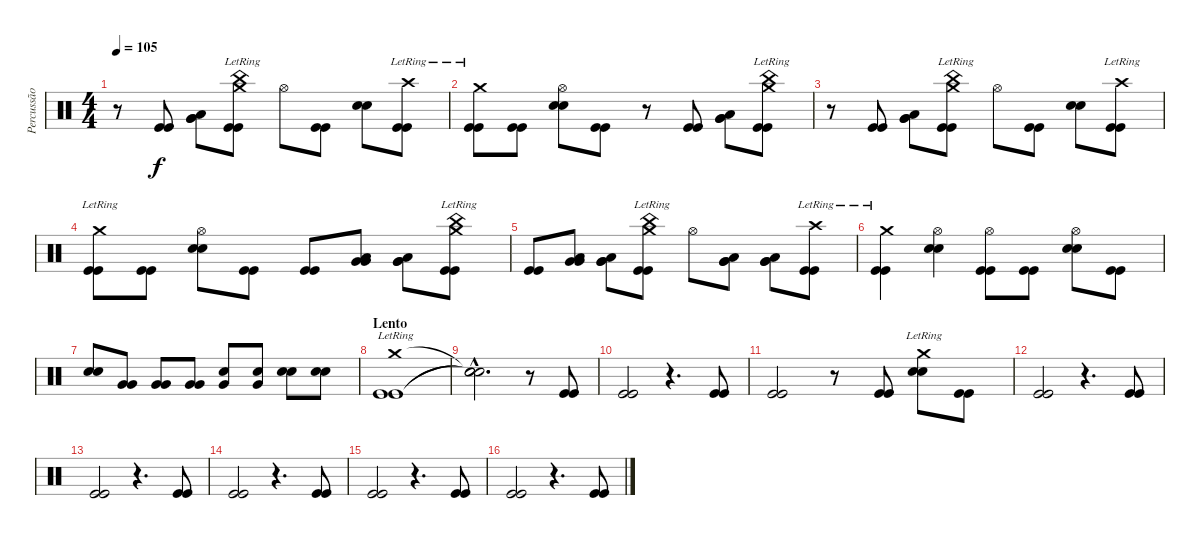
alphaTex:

\track ("Percussão" "Percussão") {instrument percussion}
\staff {score}
\articulation defaults
\ts (4 4)
\tempo 105
\clef neutral
\ks c
r.8{dy f} ("Kick (hit)" "Kick (hit)").8 ("Low Tom (hit)" "Very Low Tom (hit)" "Very Low Tom (hit)").8 ("Crash medium (hit)"{lr} "China (hit)"{lr} "Kick (hit)" "Kick (hit)").8 "Hi-Hat (open)".8 ("Kick (hit)" "Kick (hit)").8 ("Electric Snare (hit)" "Electric Snare (hit)").8 ("Crash high (hit)"{lr} "Kick (hit)" "Kick (hit)").8 |
("Crash medium (hit)"{lr} "Kick (hit)" "Kick (hit)").8 ("Kick (hit)" "Kick (hit)").8 ("Hi-Hat (open)" "Electric Snare (hit)" "Electric Snare (hit)").8 ("Kick (hit)" "Kick (hit)").8 r.8 ("Kick (hit)" "Kick (hit)").8 ("Low Tom (hit)" "Very Low Tom (hit)" "Very Low Tom (hit)").8 ("Crash medium (hit)"{lr} "China (hit)"{lr} "Kick (hit)" "Kick (hit)").8 |
r.8 ("Kick (hit)" "Kick (hit)").8 ("Low Tom (hit)" "Very Low Tom (hit)" "Very Low Tom (hit)").8 ("Crash medium (hit)"{lr} "China (hit)"{lr} "Kick (hit)" "Kick (hit)").8 "Hi-Hat (open)".8 ("Kick (hit)" "Kick (hit)").8 ("Electric Snare (hit)" "Electric Snare (hit)").8 ("Crash high (hit)"{lr} "Kick (hit)" "Kick (hit)").8 |
("Crash medium (hit)"{lr} "Kick (hit)" "Kick (hit)").8 ("Kick (hit)" "Kick (hit)").8 ("Hi-Hat (open)" "Electric Snare (hit)" "Electric Snare (hit)").8 ("Kick (hit)" "Kick (hit)").8 ("Kick (hit)" "Kick (hit)").8 ("Low Tom (hit)" "Very Low Tom (hit)" "Very Low Tom (hit)").8 ("Low Tom (hit)" "Very Low Tom (hit)" "Very Low Tom (hit)").8 ("Crash medium (hit)"{lr} "China (hit)"{lr} "Kick (hit)" "Kick (hit)").8 |
("Kick (hit)" "Kick (hit)").8 ("Low Tom (hit)" "Very Low Tom (hit)" "Very Low Tom (hit)").8 ("Low Tom (hit)" "Very Low Tom (hit)" "Very Low Tom (hit)").8 ("Crash medium (hit)"{lr} "China (hit)"{lr} "Kick (hit)" "Kick (hit)").8 "Hi-Hat (open)".8 ("Low Tom (hit)" "Very Low Tom (hit)" "Very Low Tom (hit)").8 ("Low Tom (hit)" "Very Low Tom (hit)" "Very Low Tom (hit)").8 ("Crash high (hit)"{lr} "Kick (hit)" "Kick (hit)").8 |
("Crash medium (hit)"{lr} "Kick (hit)" "Kick (hit)").4 ("Hi-Hat (open)" "Electric Snare (hit)" "Electric Snare (hit)").4 ("Hi-Hat (open)" "Kick (hit)" "Kick (hit)").8 ("Kick (hit)" "Kick (hit)").8 ("Hi-Hat (open)" "Electric Snare (hit)" "Electric Snare (hit)").8 ("Kick (hit)" "Kick (hit)").8 |
("Electric Snare (hit)" "Electric Snare (hit)").8 ("Very Low Tom (hit)" "Very Low Tom (hit)").8 ("Very Low Tom (hit)" "Very Low Tom (hit)").8 ("Very Low Tom (hit)" "Very Low Tom (hit)").8 ("Very Low Tom (hit)" "Electric Snare (hit)").8 ("Very Low Tom (hit)" "Electric Snare (hit)").8 ("Electric Snare (hit)" "Electric Snare (hit)").8 ("Electric Snare (hit)" "Electric Snare (hit)").8 |
\section ("" "Lento")
("Crash medium (hit)"{lr} "Kick (hit)" "Kick (hit)").1 |
("Snare (hit)"{hac t} "Snare (hit)"{hac t} "Snare (hit)"{hac t}).2{d} r.8 ("Kick (hit)" "Kick (hit)").8 |
("Kick (hit)" "Kick (hit)").2 r.4{d} ("Kick (hit)" "Kick (hit)").8 |
("Kick (hit)" "Kick (hit)").2 r.8 ("Kick (hit)" "Kick (hit)").8 ("Crash medium (hit)"{lr} "Electric Snare (hit)" "Electric Snare (hit)").8 ("Kick (hit)" "Kick (hit)").8 |
("Kick (hit)" "Kick (hit)").2 r.4{d} ("Kick (hit)" "Kick (hit)").8 |
("Kick (hit)" "Kick (hit)").2 r.4{d} ("Kick (hit)" "Kick (hit)").8 |
("Kick (hit)" "Kick (hit)").2 r.4{d} ("Kick (hit)" "Kick (hit)").8 |
("Kick (hit)" "Kick (hit)").2 r.4{d} ("Kick (hit)" "Kick (hit)").8 |
("Kick (hit)" "Kick (hit)").2 r.4{d} ("Kick (hit)" "Kick (hit)").8
